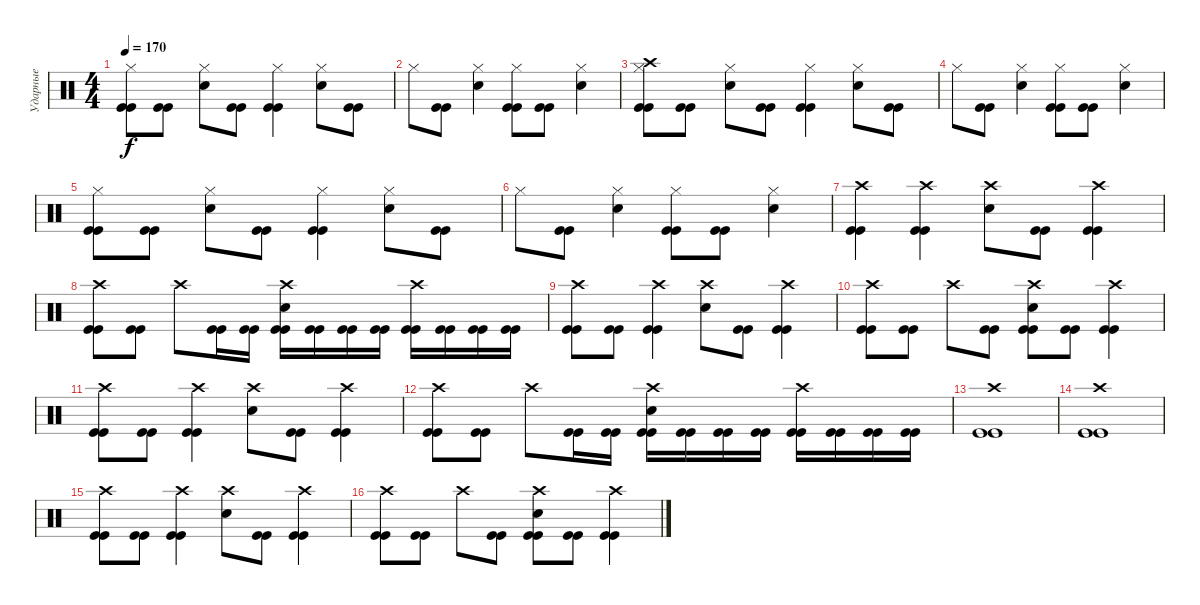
\track ("Ударные" "Ударные") {instrument percussion}
\staff {score}
\articulation defaults
\ts (4 4)
\tempo 170
\clef neutral
\ks c
("Hi-Hat (closed)" "Kick (hit)" "Kick (hit)").8{dy f} ("Kick (hit)" "Kick (hit)").8 ("Hi-Hat (closed)" "Electric Snare (hit)").8 ("Kick (hit)" "Kick (hit)").8 ("Hi-Hat (closed)" "Kick (hit)" "Kick (hit)").4 ("Hi-Hat (closed)" "Electric Snare (hit)").8 ("Kick (hit)" "Kick (hit)").8 |
"Hi-Hat (closed)".8 ("Kick (hit)" "Kick (hit)").8 ("Hi-Hat (closed)" "Electric Snare (hit)").4 ("Hi-Hat (closed)" "Kick (hit)" "Kick (hit)").8 ("Kick (hit)" "Kick (hit)").8 ("Hi-Hat (closed)" "Electric Snare (hit)").4 |
("Crash high (hit)" "Hi-Hat (closed)" "Kick (hit)" "Kick (hit)").8 ("Kick (hit)" "Kick (hit)").8 ("Hi-Hat (closed)" "Electric Snare (hit)").8 ("Kick (hit)" "Kick (hit)").8 ("Hi-Hat (closed)" "Kick (hit)" "Kick (hit)").4 ("Hi-Hat (closed)" "Electric Snare (hit)").8 ("Kick (hit)" "Kick (hit)").8 |
"Hi-Hat (closed)".8 ("Kick (hit)" "Kick (hit)").8 ("Hi-Hat (closed)" "Electric Snare (hit)").4 ("Hi-Hat (closed)" "Kick (hit)" "Kick (hit)").8 ("Kick (hit)" "Kick (hit)").8 ("Hi-Hat (closed)" "Electric Snare (hit)").4 |
("Hi-Hat (closed)" "Kick (hit)" "Kick (hit)").8 ("Kick (hit)" "Kick (hit)").8 ("Hi-Hat (closed)" "Electric Snare (hit)").8 ("Kick (hit)" "Kick (hit)").8 ("Hi-Hat (closed)" "Kick (hit)" "Kick (hit)").4 ("Hi-Hat (closed)" "Electric Snare (hit)").8 ("Kick (hit)" "Kick (hit)").8 |
"Hi-Hat (closed)".8 ("Kick (hit)" "Kick (hit)").8 ("Hi-Hat (closed)" "Electric Snare (hit)").4 ("Hi-Hat (closed)" "Kick (hit)" "Kick (hit)").8 ("Kick (hit)" "Kick (hit)").8 ("Hi-Hat (closed)" "Electric Snare (hit)").4 |
("Crash high (hit)" "Kick (hit)" "Kick (hit)").4 ("Crash high (hit)" "Kick (hit)" "Kick (hit)").4 ("Crash high (hit)" "Electric Snare (hit)").8 ("Kick (hit)" "Kick (hit)").8 ("Crash high (hit)" "Kick (hit)" "Kick (hit)").4 |
("Crash high (hit)" "Kick (hit)" "Kick (hit)").8 ("Kick (hit)" "Kick (hit)").8 "Crash high (hit)".8 ("Kick (hit)" "Kick (hit)").16 ("Kick (hit)" "Kick (hit)").16 ("Crash high (hit)" "Electric Snare (hit)" "Kick (hit)" "Kick (hit)").16 ("Kick (hit)" "Kick (hit)").16 ("Kick (hit)" "Kick (hit)").16 ("Kick (hit)" "Kick (hit)").16 ("Crash high (hit)" "Kick (hit)" "Kick (hit)").16 ("Kick (hit)" "Kick (hit)").16 ("Kick (hit)" "Kick (hit)").16 ("Kick (hit)" "Kick (hit)").16 |
("Crash high (hit)" "Kick (hit)" "Kick (hit)").8 ("Kick (hit)" "Kick (hit)").8 ("Crash high (hit)" "Kick (hit)" "Kick (hit)").4 ("Crash high (hit)" "Electric Snare (hit)").8 ("Kick (hit)" "Kick (hit)").8 ("Crash high (hit)" "Kick (hit)" "Kick (hit)").4 |
("Crash high (hit)" "Kick (hit)" "Kick (hit)").8 ("Kick (hit)" "Kick (hit)").8 "Crash high (hit)".8 ("Kick (hit)" "Kick (hit)").8 ("Crash high (hit)" "Electric Snare (hit)" "Kick (hit)" "Kick (hit)").8 ("Kick (hit)" "Kick (hit)").8 ("Crash high (hit)" "Kick (hit)" "Kick (hit)").4 |
("Crash high (hit)" "Kick (hit)" "Kick (hit)").8 ("Kick (hit)" "Kick (hit)").8 ("Crash high (hit)" "Kick (hit)" "Kick (hit)").4 ("Crash high (hit)" "Electric Snare (hit)").8 ("Kick (hit)" "Kick (hit)").8 ("Crash high (hit)" "Kick (hit)" "Kick (hit)").4 |
("Crash high (hit)" "Kick (hit)" "Kick (hit)").8 ("Kick (hit)" "Kick (hit)").8 "Crash high (hit)".8 ("Kick (hit)" "Kick (hit)").16 ("Kick (hit)" "Kick (hit)").16 ("Crash high (hit)" "Electric Snare (hit)" "Kick (hit)" "Kick (hit)").16 ("Kick (hit)" "Kick (hit)").16 ("Kick (hit)" "Kick (hit)").16 ("Kick (hit)" "Kick (hit)").16 ("Crash high (hit)" "Kick (hit)" "Kick (hit)").16 ("Kick (hit)" "Kick (hit)").16 ("Kick (hit)" "Kick (hit)").16 ("Kick (hit)" "Kick (hit)").16 |
("Crash high (hit)" "Kick (hit)" "Kick (hit)").1 |
("Crash high (hit)" "Kick (hit)" "Kick (hit)").1 |
("Crash high (hit)" "Kick (hit)" "Kick (hit)").8 ("Kick (hit)" "Kick (hit)").8 ("Crash high (hit)" "Kick (hit)" "Kick (hit)").4 ("Crash high (hit)" "Electric Snare (hit)").8 ("Kick (hit)" "Kick (hit)").8 ("Crash high (hit)" "Kick (hit)" "Kick (hit)").4 |
("Crash high (hit)" "Kick (hit)" "Kick (hit)").8 ("Kick (hit)" "Kick (hit)").8 "Crash high (hit)".8 ("Kick (hit)" "Kick (hit)").8 ("Crash high (hit)" "Electric Snare (hit)" "Kick (hit)" "Kick (hit)").8 ("Kick (hit)" "Kick (hit)").8 ("Crash high (hit)" "Kick (hit)" "Kick (hit)").4
